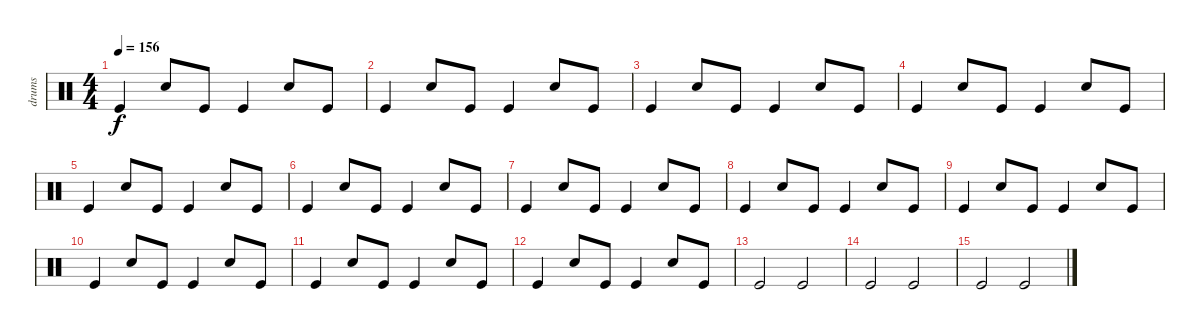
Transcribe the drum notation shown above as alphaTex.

\track ("drums" "drums") {instrument percussion}
\staff {score}
\articulation defaults
\ts (4 4)
\tempo 156
\clef neutral
\ks c "Kick (hit)".4{dy f} "Snare (hit) 2".8 "Kick (hit)".8 "Kick (hit)".4 "Snare (hit) 2".8 "Kick (hit)".8
|
"Kick (hit)".4 "Snare (hit) 2".8 "Kick (hit)".8 "Kick (hit)".4 "Snare (hit) 2".8 "Kick (hit)".8 |
"Kick (hit)".4 "Snare (hit) 2".8 "Kick (hit)".8 "Kick (hit)".4 "Snare (hit) 2".8 "Kick (hit)".8 |
"Kick (hit)".4 "Snare (hit) 2".8 "Kick (hit)".8 "Kick (hit)".4 "Electric Snare (hit)".8 "Kick (hit)".8 |
"Kick (hit)".4 "Snare (hit) 2".8 "Kick (hit)".8 "Kick (hit)".4 "Snare (hit) 2".8 "Kick (hit)".8 |
"Kick (hit)".4 "Snare (hit) 2".8 "Kick (hit)".8 "Kick (hit)".4 "Snare (hit) 2".8 "Kick (hit)".8 |
"Kick (hit)".4 "Snare (hit) 2".8 "Kick (hit)".8 "Kick (hit)".4 "Snare (hit) 2".8 "Kick (hit)".8 |
"Kick (hit)".4 "Snare (hit) 2".8 "Kick (hit)".8 "Kick (hit)".4 "Electric Snare (hit)".8 "Kick (hit)".8 |
"Kick (hit)".4 "Snare (hit) 2".8 "Kick (hit)".8 "Kick (hit)".4 "Snare (hit) 2".8 "Kick (hit)".8 |
"Kick (hit)".4 "Snare (hit) 2".8 "Kick (hit)".8 "Kick (hit)".4 "Snare (hit) 2".8 "Kick (hit)".8 |
"Kick (hit)".4 "Snare (hit) 2".8 "Kick (hit)".8 "Kick (hit)".4 "Snare (hit) 2".8 "Kick (hit)".8 |
"Kick (hit)".4 "Snare (hit) 2".8 "Kick (hit)".8 "Kick (hit)".4 "Electric Snare (hit)".8 "Kick (hit)".8 |
"Kick (hit)".2 "Kick (hit)".2 |
"Kick (hit)".2 "Kick (hit)".2 |
"Kick (hit)".2 "Kick (hit)".2
